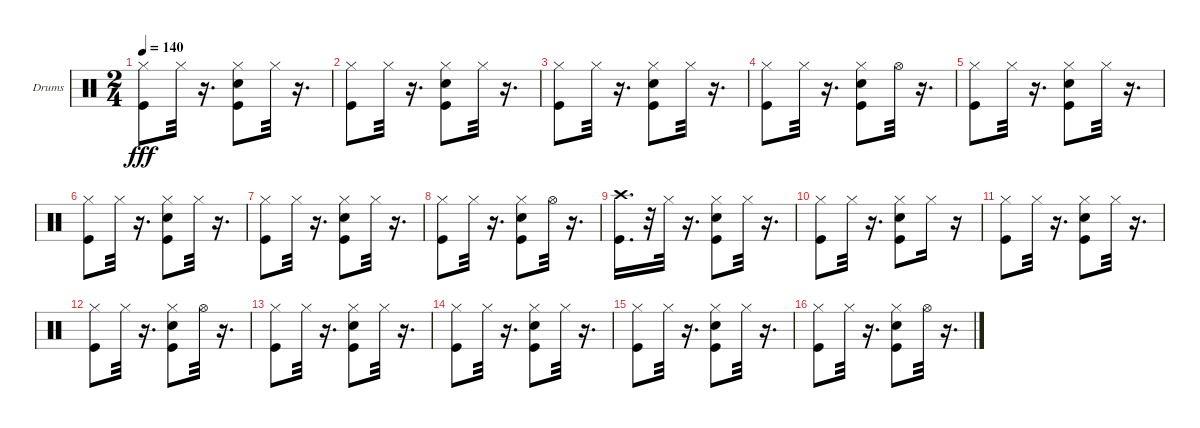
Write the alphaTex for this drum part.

\bracketExtendMode groupsimilarinstruments
\firstSystemTrackNameOrientation horizontal
\otherSystemsTrackNameOrientation horizontal
\track ("Ударные" "Drums") {instrument percussion}
\staff {score}
\articulation defaults
\ts (2 4)
\tempo 140
\clef neutral
\ks c
("Kick (hit)" "Hi-Hat (closed)").8{dy fff} "Hi-Hat (closed)".32 r.16{d} ("Snare (hit) 2" "Kick (hit)" "Hi-Hat (closed)").8 "Hi-Hat (closed)".32 r.16{d} |
("Kick (hit)" "Hi-Hat (closed)").8 "Hi-Hat (closed)".32 r.16{d} ("Snare (hit) 2" "Kick (hit)" "Hi-Hat (closed)").8 "Hi-Hat (closed)".32 r.16{d} |
("Kick (hit)" "Hi-Hat (closed)").8 "Hi-Hat (closed)".32 r.16{d} ("Kick (hit)" "Hi-Hat (closed)" "Snare (hit) 2").8 "Hi-Hat (closed)".32 r.16{d} |
("Kick (hit)" "Hi-Hat (closed)").8 "Hi-Hat (closed)".32 r.16{d} ("Snare (hit) 2" "Kick (hit)" "Hi-Hat (closed)").8 "Hi-Hat (open)".32 r.16{d} |
("Kick (hit)" "Hi-Hat (closed)").8 "Hi-Hat (closed)".32 r.16{d} ("Snare (hit) 2" "Kick (hit)" "Hi-Hat (closed)").8 "Hi-Hat (closed)".32 r.16{d} |
("Kick (hit)" "Hi-Hat (closed)").8 "Hi-Hat (closed)".32 r.16{d} ("Snare (hit) 2" "Kick (hit)" "Hi-Hat (closed)").8 "Hi-Hat (closed)".32 r.16{d} |
("Kick (hit)" "Hi-Hat (closed)").8 "Hi-Hat (closed)".32 r.16{d} ("Snare (hit) 2" "Kick (hit)" "Hi-Hat (closed)").8 "Hi-Hat (closed)".32 r.16{d} |
("Kick (hit)" "Hi-Hat (closed)").8 "Hi-Hat (closed)".32 r.16{d} ("Snare (hit) 2" "Kick (hit)" "Hi-Hat (closed)").8 "Hi-Hat (open)".32 r.16{d} |
("Crash high (hit)" "Kick (hit)").16{d} r.32 "Hi-Hat (closed)".32 r.16{d} ("Snare (hit) 2" "Hi-Hat (closed)" "Kick (hit)").8 "Hi-Hat (closed)".32 r.16{d} |
("Kick (hit)" "Hi-Hat (closed)").8 "Hi-Hat (closed)".32 r.16{d} ("Snare (hit) 2" "Kick (hit)" "Hi-Hat (closed)").8 "Hi-Hat (closed)".16 r.16 |
("Kick (hit)" "Hi-Hat (closed)").8 "Hi-Hat (closed)".32 r.16{d} ("Snare (hit) 2" "Kick (hit)" "Hi-Hat (closed)").8 "Hi-Hat (closed)".32 r.16{d} |
("Kick (hit)" "Hi-Hat (closed)").8 "Hi-Hat (closed)".32 r.16{d} ("Kick (hit)" "Snare (hit) 2" "Hi-Hat (closed)").8 "Hi-Hat (open)".32 r.16{d} |
("Kick (hit)" "Hi-Hat (closed)").8 "Hi-Hat (closed)".32 r.16{d} ("Hi-Hat (closed)" "Snare (hit) 2" "Kick (hit)").8 "Hi-Hat (closed)".32 r.16{d} |
("Kick (hit)" "Hi-Hat (closed)").8 "Hi-Hat (closed)".32 r.16{d} ("Snare (hit) 2" "Kick (hit)" "Hi-Hat (closed)").8 "Hi-Hat (closed)".32 r.16{d} |
("Kick (hit)" "Hi-Hat (closed)").8 "Hi-Hat (closed)".32 r.16{d} ("Kick (hit)" "Hi-Hat (closed)" "Snare (hit) 2").8 "Hi-Hat (closed)".32 r.16{d} |
("Kick (hit)" "Hi-Hat (closed)").8 "Hi-Hat (closed)".32 r.16{d} ("Snare (hit) 2" "Kick (hit)" "Hi-Hat (closed)").8 "Hi-Hat (open)".32 r.16{d}
